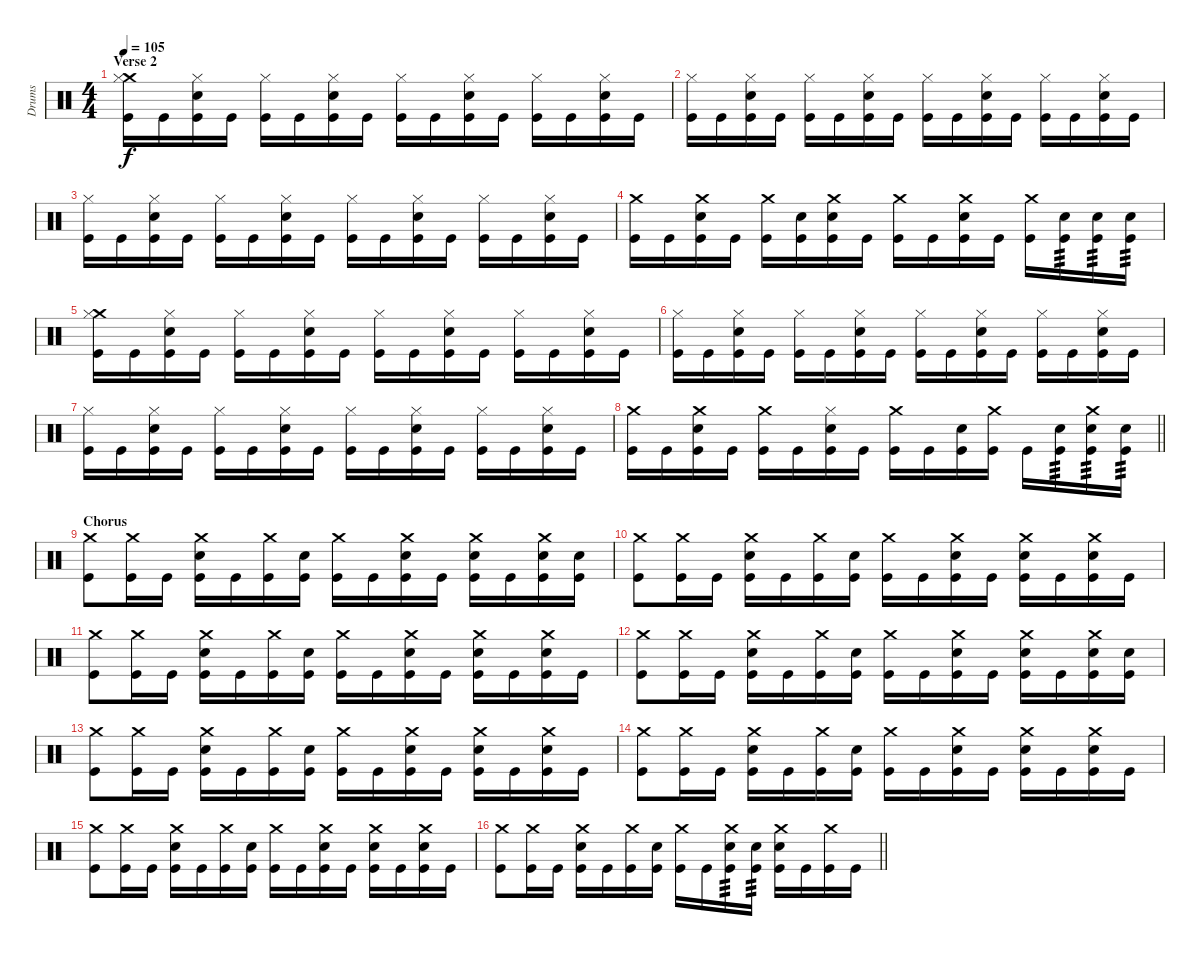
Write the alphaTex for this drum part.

\track ("Drums" "Drums") {instrument percussion}
\staff {score}
\articulation defaults
\ts (4 4)
\section ("" "Verse 2")
\tempo 105
\clef neutral
\ks c
("Crash medium (hit)" "Hi-Hat (closed)" "Kick (hit)").16{dy f} "Kick (hit)".16 ("Hi-Hat (closed)" "Snare (hit) 2" "Kick (hit)").16 "Kick (hit)".16 ("Hi-Hat (closed)" "Kick (hit)").16 "Kick (hit)".16 ("Hi-Hat (closed)" "Snare (hit) 2" "Kick (hit)").16 "Kick (hit)".16 ("Hi-Hat (closed)" "Kick (hit)").16 "Kick (hit)".16 ("Hi-Hat (closed)" "Snare (hit) 2" "Kick (hit)").16 "Kick (hit)".16 ("Hi-Hat (closed)" "Kick (hit)").16 "Kick (hit)".16 ("Hi-Hat (closed)" "Snare (hit) 2" "Kick (hit)").16 "Kick (hit)".16 |
("Hi-Hat (closed)" "Kick (hit)").16 "Kick (hit)".16 ("Hi-Hat (closed)" "Snare (hit) 2" "Kick (hit)").16 "Kick (hit)".16 ("Hi-Hat (closed)" "Kick (hit)").16 "Kick (hit)".16 ("Hi-Hat (closed)" "Snare (hit) 2" "Kick (hit)").16 "Kick (hit)".16 ("Hi-Hat (closed)" "Kick (hit)").16 "Kick (hit)".16 ("Hi-Hat (closed)" "Snare (hit) 2" "Kick (hit)").16 "Kick (hit)".16 ("Hi-Hat (closed)" "Kick (hit)").16 "Kick (hit)".16 ("Hi-Hat (closed)" "Snare (hit) 2" "Kick (hit)").16 "Kick (hit)".16 |
("Hi-Hat (closed)" "Kick (hit)").16 "Kick (hit)".16 ("Hi-Hat (closed)" "Snare (hit) 2" "Kick (hit)").16 "Kick (hit)".16 ("Hi-Hat (closed)" "Kick (hit)").16 "Kick (hit)".16 ("Hi-Hat (closed)" "Snare (hit) 2" "Kick (hit)").16 "Kick (hit)".16 ("Hi-Hat (closed)" "Kick (hit)").16 "Kick (hit)".16 ("Hi-Hat (closed)" "Snare (hit) 2" "Kick (hit)").16 "Kick (hit)".16 ("Hi-Hat (closed)" "Kick (hit)").16 "Kick (hit)".16 ("Hi-Hat (closed)" "Snare (hit) 2" "Kick (hit)").16 "Kick (hit)".16 |
("Crash medium (hit)" "Kick (hit)").16 "Kick (hit)".16 ("Crash medium (hit)" "Snare (hit) 2" "Kick (hit)").16 "Kick (hit)".16 ("Crash medium (hit)" "Kick (hit)").16 ("Snare (hit) 2" "Kick (hit)").16 ("Crash medium (hit)" "Snare (hit) 2" "Kick (hit)").16 "Kick (hit)".16 ("Crash medium (hit)" "Kick (hit)").16 "Kick (hit)".16 ("Crash medium (hit)" "Snare (hit) 2" "Kick (hit)").16 "Kick (hit)".16 ("Crash medium (hit)" "Kick (hit)").16 ("Snare (hit) 2" "Kick (hit)").16{tp 3} ("Snare (hit) 2" "Kick (hit)").16{tp 3} ("Snare (hit) 2" "Kick (hit)").16{tp 3} |
("Crash medium (hit)" "Hi-Hat (closed)" "Kick (hit)").16 "Kick (hit)".16 ("Hi-Hat (closed)" "Snare (hit) 2" "Kick (hit)").16 "Kick (hit)".16 ("Hi-Hat (closed)" "Kick (hit)").16 "Kick (hit)".16 ("Hi-Hat (closed)" "Snare (hit) 2" "Kick (hit)").16 "Kick (hit)".16 ("Hi-Hat (closed)" "Kick (hit)").16 "Kick (hit)".16 ("Hi-Hat (closed)" "Snare (hit) 2" "Kick (hit)").16 "Kick (hit)".16 ("Hi-Hat (closed)" "Kick (hit)").16 "Kick (hit)".16 ("Hi-Hat (closed)" "Snare (hit) 2" "Kick (hit)").16 "Kick (hit)".16 |
("Hi-Hat (closed)" "Kick (hit)").16 "Kick (hit)".16 ("Hi-Hat (closed)" "Snare (hit) 2" "Kick (hit)").16 "Kick (hit)".16 ("Hi-Hat (closed)" "Kick (hit)").16 "Kick (hit)".16 ("Hi-Hat (closed)" "Snare (hit) 2" "Kick (hit)").16 "Kick (hit)".16 ("Hi-Hat (closed)" "Kick (hit)").16 "Kick (hit)".16 ("Hi-Hat (closed)" "Snare (hit) 2" "Kick (hit)").16 "Kick (hit)".16 ("Hi-Hat (closed)" "Kick (hit)").16 "Kick (hit)".16 ("Hi-Hat (closed)" "Snare (hit) 2" "Kick (hit)").16 "Kick (hit)".16 |
("Hi-Hat (closed)" "Kick (hit)").16 "Kick (hit)".16 ("Hi-Hat (closed)" "Snare (hit) 2" "Kick (hit)").16 "Kick (hit)".16 ("Hi-Hat (closed)" "Kick (hit)").16 "Kick (hit)".16 ("Hi-Hat (closed)" "Snare (hit) 2" "Kick (hit)").16 "Kick (hit)".16 ("Hi-Hat (closed)" "Kick (hit)").16 "Kick (hit)".16 ("Hi-Hat (closed)" "Snare (hit) 2" "Kick (hit)").16 "Kick (hit)".16 ("Hi-Hat (closed)" "Kick (hit)").16 "Kick (hit)".16 ("Hi-Hat (closed)" "Snare (hit) 2" "Kick (hit)").16 "Kick (hit)".16 |
\barLineRight lightlight
("Crash medium (hit)" "Kick (hit)").16 "Kick (hit)".16 ("Crash medium (hit)" "Snare (hit) 2" "Kick (hit)").16 "Kick (hit)".16 ("Crash medium (hit)" "Kick (hit)").16 "Kick (hit)".16 ("Hi-Hat (closed)" "Snare (hit) 2" "Kick (hit)").16 "Kick (hit)".16 ("Crash medium (hit)" "Kick (hit)").16 "Kick (hit)".16 ("Snare (hit) 2" "Kick (hit)").16 ("Crash medium (hit)" "Kick (hit)").16 "Kick (hit)".16 ("Snare (hit) 2" "Kick (hit)").16{tp 3} ("Crash medium (hit)" "Snare (hit) 2" "Kick (hit)").16{tp 3} ("Snare (hit) 2" "Kick (hit)").16{tp 3} |
\section ("" "Chorus")
("Crash medium (hit)" "Kick (hit)").8 ("Crash medium (hit)" "Kick (hit)").16 "Kick (hit)".16 ("Crash medium (hit)" "Snare (hit) 2" "Kick (hit)").16 "Kick (hit)".16 ("Crash medium (hit)" "Kick (hit)").16 ("Snare (hit) 2" "Kick (hit)").16 ("Crash medium (hit)" "Kick (hit)").16 "Kick (hit)".16 ("Crash medium (hit)" "Snare (hit) 2" "Kick (hit)").16 "Kick (hit)".16 ("Crash medium (hit)" "Snare (hit) 2" "Kick (hit)").16 "Kick (hit)".16 ("Crash medium (hit)" "Snare (hit) 2" "Kick (hit)").16 ("Snare (hit) 2" "Kick (hit)").16 |
("Crash medium (hit)" "Kick (hit)").8 ("Crash medium (hit)" "Kick (hit)").16 "Kick (hit)".16 ("Crash medium (hit)" "Snare (hit) 2" "Kick (hit)").16 "Kick (hit)".16 ("Crash medium (hit)" "Kick (hit)").16 ("Snare (hit) 2" "Kick (hit)").16 ("Crash medium (hit)" "Kick (hit)").16 "Kick (hit)".16 ("Crash medium (hit)" "Snare (hit) 2" "Kick (hit)").16 "Kick (hit)".16 ("Crash medium (hit)" "Snare (hit) 2" "Kick (hit)").16 "Kick (hit)".16 ("Crash medium (hit)" "Snare (hit) 2" "Kick (hit)").16 "Kick (hit)".16 |
("Crash medium (hit)" "Kick (hit)").8 ("Crash medium (hit)" "Kick (hit)").16 "Kick (hit)".16 ("Crash medium (hit)" "Snare (hit) 2" "Kick (hit)").16 "Kick (hit)".16 ("Crash medium (hit)" "Kick (hit)").16 ("Snare (hit) 2" "Kick (hit)").16 ("Crash medium (hit)" "Kick (hit)").16 "Kick (hit)".16 ("Crash medium (hit)" "Snare (hit) 2" "Kick (hit)").16 "Kick (hit)".16 ("Crash medium (hit)" "Snare (hit) 2" "Kick (hit)").16 "Kick (hit)".16 ("Crash medium (hit)" "Snare (hit) 2" "Kick (hit)").16 "Kick (hit)".16 |
("Crash medium (hit)" "Kick (hit)").8 ("Crash medium (hit)" "Kick (hit)").16 "Kick (hit)".16 ("Crash medium (hit)" "Snare (hit) 2" "Kick (hit)").16 "Kick (hit)".16 ("Crash medium (hit)" "Kick (hit)").16 ("Snare (hit) 2" "Kick (hit)").16 ("Crash medium (hit)" "Kick (hit)").16 "Kick (hit)".16 ("Crash medium (hit)" "Snare (hit) 2" "Kick (hit)").16 "Kick (hit)".16 ("Crash medium (hit)" "Snare (hit) 2" "Kick (hit)").16 "Kick (hit)".16 ("Crash medium (hit)" "Snare (hit) 2" "Kick (hit)").16 ("Snare (hit) 2" "Kick (hit)").16 |
("Crash medium (hit)" "Kick (hit)").8 ("Crash medium (hit)" "Kick (hit)").16 "Kick (hit)".16 ("Crash medium (hit)" "Snare (hit) 2" "Kick (hit)").16 "Kick (hit)".16 ("Crash medium (hit)" "Kick (hit)").16 ("Snare (hit) 2" "Kick (hit)").16 ("Crash medium (hit)" "Kick (hit)").16 "Kick (hit)".16 ("Crash medium (hit)" "Snare (hit) 2" "Kick (hit)").16 "Kick (hit)".16 ("Crash medium (hit)" "Snare (hit) 2" "Kick (hit)").16 "Kick (hit)".16 ("Crash medium (hit)" "Snare (hit) 2" "Kick (hit)").16 "Kick (hit)".16 |
("Crash medium (hit)" "Kick (hit)").8 ("Crash medium (hit)" "Kick (hit)").16 "Kick (hit)".16 ("Crash medium (hit)" "Snare (hit) 2" "Kick (hit)").16 "Kick (hit)".16 ("Crash medium (hit)" "Kick (hit)").16 ("Snare (hit) 2" "Kick (hit)").16 ("Crash medium (hit)" "Kick (hit)").16 "Kick (hit)".16 ("Crash medium (hit)" "Snare (hit) 2" "Kick (hit)").16 "Kick (hit)".16 ("Crash medium (hit)" "Snare (hit) 2" "Kick (hit)").16 "Kick (hit)".16 ("Crash medium (hit)" "Snare (hit) 2" "Kick (hit)").16 "Kick (hit)".16 |
("Crash medium (hit)" "Kick (hit)").8 ("Crash medium (hit)" "Kick (hit)").16 "Kick (hit)".16 ("Crash medium (hit)" "Snare (hit) 2" "Kick (hit)").16 "Kick (hit)".16 ("Crash medium (hit)" "Kick (hit)").16 ("Snare (hit) 2" "Kick (hit)").16 ("Crash medium (hit)" "Kick (hit)").16 "Kick (hit)".16 ("Crash medium (hit)" "Snare (hit) 2" "Kick (hit)").16 "Kick (hit)".16 ("Crash medium (hit)" "Snare (hit) 2" "Kick (hit)").16 "Kick (hit)".16 ("Crash medium (hit)" "Snare (hit) 2" "Kick (hit)").16 "Kick (hit)".16 |
\barLineRight lightlight
("Crash medium (hit)" "Kick (hit)").8 ("Crash medium (hit)" "Kick (hit)").16 "Kick (hit)".16 ("Crash medium (hit)" "Snare (hit) 2" "Kick (hit)").16 "Kick (hit)".16 ("Crash medium (hit)" "Kick (hit)").16 ("Snare (hit) 2" "Kick (hit)").16 ("Crash medium (hit)" "Kick (hit)").16 "Kick (hit)".16 ("Crash medium (hit)" "Snare (hit) 2" "Kick (hit)").16{tp 3} ("Snare (hit) 2" "Kick (hit)").16{tp 3} ("Crash medium (hit)" "Snare (hit) 2" "Kick (hit)").16 "Kick (hit)".16 ("Crash medium (hit)" "Kick (hit)").16 "Kick (hit)".16
